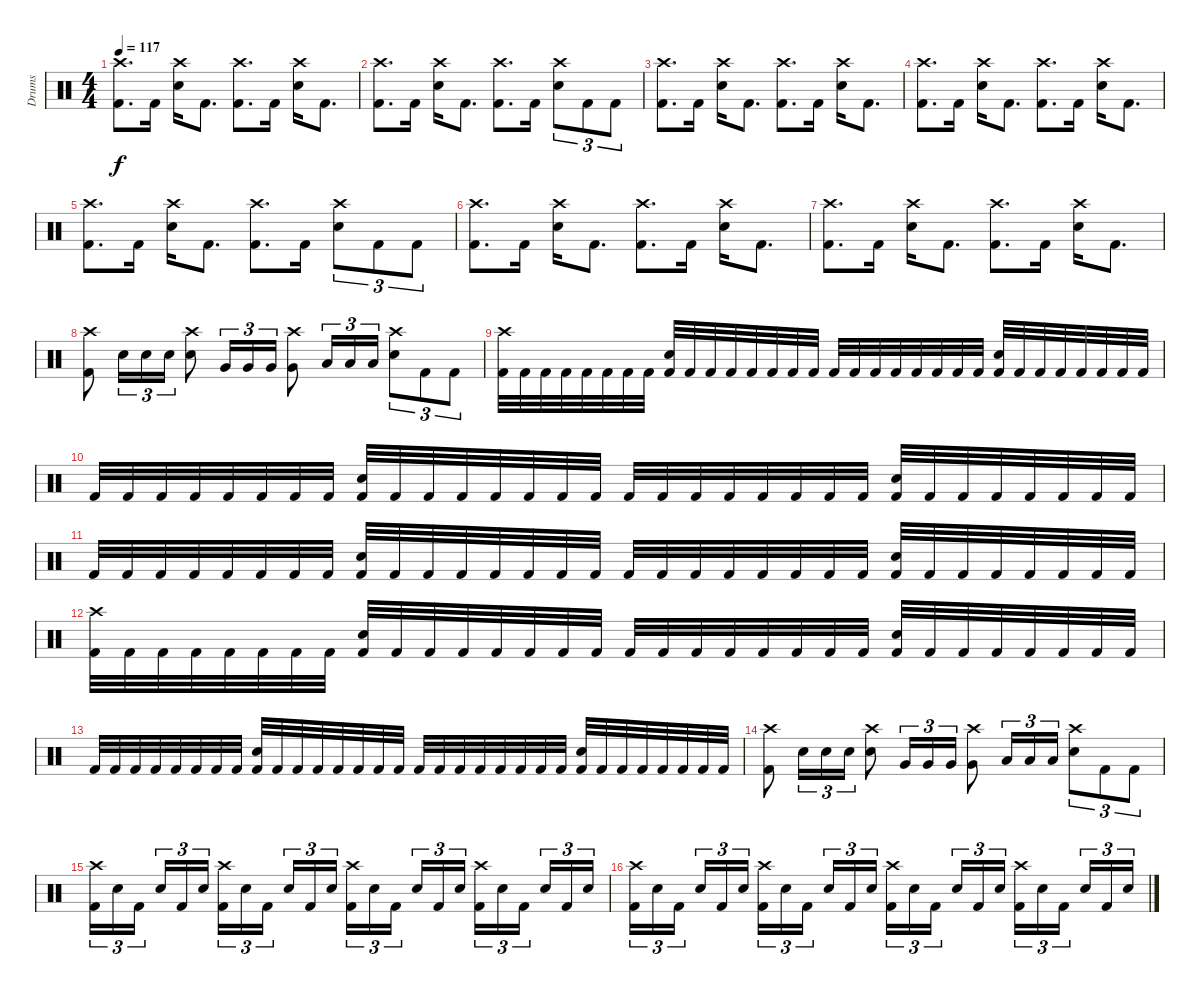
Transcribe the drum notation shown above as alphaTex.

\track ("Drums" "Drums") {instrument percussion}
\staff {score}
\articulation defaults
\ts (4 4)
\tempo 117
\clef neutral
\ks c
("Crash high (hit)" "Kick (hit) 2").8{d dy f} "Kick (hit) 2".16 ("Crash high (hit)" "Snare (hit) 2").16 "Kick (hit) 2".8{d} ("Crash high (hit)" "Kick (hit) 2").8{d} "Kick (hit) 2".16 ("Crash high (hit)" "Snare (hit) 2").16 "Kick (hit) 2".8{d} |
("Crash high (hit)" "Kick (hit) 2").8{d} "Kick (hit) 2".16 ("Crash high (hit)" "Snare (hit) 2").16 "Kick (hit) 2".8{d} ("Crash high (hit)" "Kick (hit) 2").8{d} "Kick (hit) 2".16 ("Crash high (hit)" "Snare (hit) 2").8{tu (3 2)} "Kick (hit) 2".8{tu (3 2)} "Kick (hit) 2".8{tu (3 2)} |
("Crash high (hit)" "Kick (hit) 2").8{d} "Kick (hit) 2".16 ("Crash high (hit)" "Snare (hit) 2").16 "Kick (hit) 2".8{d} ("Crash high (hit)" "Kick (hit) 2").8{d} "Kick (hit) 2".16 ("Crash high (hit)" "Snare (hit) 2").16 "Kick (hit) 2".8{d} |
("Crash high (hit)" "Kick (hit) 2").8{d} "Kick (hit) 2".16 ("Crash high (hit)" "Snare (hit) 2").16 "Kick (hit) 2".8{d} ("Crash high (hit)" "Kick (hit) 2").8{d} "Kick (hit) 2".16 ("Crash high (hit)" "Snare (hit) 2").16 "Kick (hit) 2".8{d} |
("Crash high (hit)" "Kick (hit) 2").8{d} "Kick (hit) 2".16 ("Crash high (hit)" "Snare (hit) 2").16 "Kick (hit) 2".8{d} ("Crash high (hit)" "Kick (hit) 2").8{d} "Kick (hit) 2".16 ("Crash high (hit)" "Snare (hit) 2").8{tu (3 2)} "Kick (hit) 2".8{tu (3 2)} "Kick (hit) 2".8{tu (3 2)} |
("Crash high (hit)" "Kick (hit) 2").8{d} "Kick (hit) 2".16 ("Crash high (hit)" "Snare (hit) 2").16 "Kick (hit) 2".8{d} ("Crash high (hit)" "Kick (hit) 2").8{d} "Kick (hit) 2".16 ("Crash high (hit)" "Snare (hit) 2").16 "Kick (hit) 2".8{d} |
("Crash high (hit)" "Kick (hit) 2").8{d} "Kick (hit) 2".16 ("Crash high (hit)" "Snare (hit) 2").16 "Kick (hit) 2".8{d} ("Crash high (hit)" "Kick (hit) 2").8{d} "Kick (hit) 2".16 ("Crash high (hit)" "Snare (hit) 2").16 "Kick (hit) 2".8{d} |
("Crash high (hit)" "Kick (hit) 2").8 "Snare (hit) 2".16{tu (3 2)} "Snare (hit) 2".16{tu (3 2)} "Snare (hit) 2".16{tu (3 2)} ("Crash high (hit)" "Snare (hit) 2").8 "Very Low Tom (hit)".16{tu (3 2)} "Very Low Tom (hit)".16{tu (3 2)} "Very Low Tom (hit)".16{tu (3 2)} ("Crash high (hit)" "Very Low Tom (hit)").8 "Low Floor Tom (hit)".16{tu (3 2)} "Low Floor Tom (hit)".16{tu (3 2)} "Low Floor Tom (hit)".16{tu (3 2)} ("Crash high (hit)" "Snare (hit) 2").8{tu (3 2)} "Kick (hit) 2".8{tu (3 2)} "Kick (hit) 2".8{tu (3 2)} |
("Crash high (hit)" "Kick (hit) 2").32 "Kick (hit) 2".32 "Kick (hit) 2".32 "Kick (hit) 2".32 "Kick (hit) 2".32 "Kick (hit) 2".32 "Kick (hit) 2".32 "Kick (hit) 2".32 ("Snare (hit) 2" "Kick (hit) 2").32 "Kick (hit) 2".32 "Kick (hit) 2".32 "Kick (hit) 2".32 "Kick (hit) 2".32 "Kick (hit) 2".32 "Kick (hit) 2".32 "Kick (hit) 2".32 "Kick (hit) 2".32 "Kick (hit) 2".32 "Kick (hit) 2".32 "Kick (hit) 2".32 "Kick (hit) 2".32 "Kick (hit) 2".32 "Kick (hit) 2".32 "Kick (hit) 2".32 ("Snare (hit) 2" "Kick (hit) 2").32 "Kick (hit) 2".32 "Kick (hit) 2".32 "Kick (hit) 2".32 "Kick (hit) 2".32 "Kick (hit) 2".32 "Kick (hit) 2".32 "Kick (hit) 2".32 |
"Kick (hit) 2".32 "Kick (hit) 2".32 "Kick (hit) 2".32 "Kick (hit) 2".32 "Kick (hit) 2".32 "Kick (hit) 2".32 "Kick (hit) 2".32 "Kick (hit) 2".32 ("Snare (hit) 2" "Kick (hit) 2").32 "Kick (hit) 2".32 "Kick (hit) 2".32 "Kick (hit) 2".32 "Kick (hit) 2".32 "Kick (hit) 2".32 "Kick (hit) 2".32 "Kick (hit) 2".32 "Kick (hit) 2".32 "Kick (hit) 2".32 "Kick (hit) 2".32 "Kick (hit) 2".32 "Kick (hit) 2".32 "Kick (hit) 2".32 "Kick (hit) 2".32 "Kick (hit) 2".32 ("Snare (hit) 2" "Kick (hit) 2").32 "Kick (hit) 2".32 "Kick (hit) 2".32 "Kick (hit) 2".32 "Kick (hit) 2".32 "Kick (hit) 2".32 "Kick (hit) 2".32 "Kick (hit) 2".32 |
"Kick (hit) 2".32 "Kick (hit) 2".32 "Kick (hit) 2".32 "Kick (hit) 2".32 "Kick (hit) 2".32 "Kick (hit) 2".32 "Kick (hit) 2".32 "Kick (hit) 2".32 ("Snare (hit) 2" "Kick (hit) 2").32 "Kick (hit) 2".32 "Kick (hit) 2".32 "Kick (hit) 2".32 "Kick (hit) 2".32 "Kick (hit) 2".32 "Kick (hit) 2".32 "Kick (hit) 2".32 "Kick (hit) 2".32 "Kick (hit) 2".32 "Kick (hit) 2".32 "Kick (hit) 2".32 "Kick (hit) 2".32 "Kick (hit) 2".32 "Kick (hit) 2".32 "Kick (hit) 2".32 ("Snare (hit) 2" "Kick (hit) 2").32 "Kick (hit) 2".32 "Kick (hit) 2".32 "Kick (hit) 2".32 "Kick (hit) 2".32 "Kick (hit) 2".32 "Kick (hit) 2".32 "Kick (hit) 2".32 |
("Crash high (hit)" "Kick (hit) 2").32 "Kick (hit) 2".32 "Kick (hit) 2".32 "Kick (hit) 2".32 "Kick (hit) 2".32 "Kick (hit) 2".32 "Kick (hit) 2".32 "Kick (hit) 2".32 ("Snare (hit) 2" "Kick (hit) 2").32 "Kick (hit) 2".32 "Kick (hit) 2".32 "Kick (hit) 2".32 "Kick (hit) 2".32 "Kick (hit) 2".32 "Kick (hit) 2".32 "Kick (hit) 2".32 "Kick (hit) 2".32 "Kick (hit) 2".32 "Kick (hit) 2".32 "Kick (hit) 2".32 "Kick (hit) 2".32 "Kick (hit) 2".32 "Kick (hit) 2".32 "Kick (hit) 2".32 ("Snare (hit) 2" "Kick (hit) 2").32 "Kick (hit) 2".32 "Kick (hit) 2".32 "Kick (hit) 2".32 "Kick (hit) 2".32 "Kick (hit) 2".32 "Kick (hit) 2".32 "Kick (hit) 2".32 |
"Kick (hit) 2".32 "Kick (hit) 2".32 "Kick (hit) 2".32 "Kick (hit) 2".32 "Kick (hit) 2".32 "Kick (hit) 2".32 "Kick (hit) 2".32 "Kick (hit) 2".32 ("Snare (hit) 2" "Kick (hit) 2").32 "Kick (hit) 2".32 "Kick (hit) 2".32 "Kick (hit) 2".32 "Kick (hit) 2".32 "Kick (hit) 2".32 "Kick (hit) 2".32 "Kick (hit) 2".32 "Kick (hit) 2".32 "Kick (hit) 2".32 "Kick (hit) 2".32 "Kick (hit) 2".32 "Kick (hit) 2".32 "Kick (hit) 2".32 "Kick (hit) 2".32 "Kick (hit) 2".32 ("Snare (hit) 2" "Kick (hit) 2").32 "Kick (hit) 2".32 "Kick (hit) 2".32 "Kick (hit) 2".32 "Kick (hit) 2".32 "Kick (hit) 2".32 "Kick (hit) 2".32 "Kick (hit) 2".32 |
("Crash high (hit)" "Kick (hit) 2").8 "Snare (hit) 2".16{tu (3 2)} "Snare (hit) 2".16{tu (3 2)} "Snare (hit) 2".16{tu (3 2)} ("Crash high (hit)" "Snare (hit) 2").8 "Very Low Tom (hit)".16{tu (3 2)} "Very Low Tom (hit)".16{tu (3 2)} "Very Low Tom (hit)".16{tu (3 2)} ("Crash high (hit)" "Very Low Tom (hit)").8 "Low Floor Tom (hit)".16{tu (3 2)} "Low Floor Tom (hit)".16{tu (3 2)} "Low Floor Tom (hit)".16{tu (3 2)} ("Crash high (hit)" "Snare (hit) 2").8{tu (3 2)} "Kick (hit) 2".8{tu (3 2)} "Kick (hit) 2".8{tu (3 2)} |
("Crash high (hit)" "Kick (hit) 2").16{tu (3 2)} "Snare (hit) 2".16{tu (3 2)} "Kick (hit) 2".16{tu (3 2) beam splitsecondary} "Snare (hit) 2".16{tu (3 2)} "Kick (hit) 2".16{tu (3 2)} "Snare (hit) 2".16{tu (3 2)} ("Crash high (hit)" "Kick (hit) 2").16{tu (3 2)} "Snare (hit) 2".16{tu (3 2)} "Kick (hit) 2".16{tu (3 2) beam splitsecondary} "Snare (hit) 2".16{tu (3 2)} "Kick (hit) 2".16{tu (3 2)} "Snare (hit) 2".16{tu (3 2)} ("Crash high (hit)" "Kick (hit) 2").16{tu (3 2)} "Snare (hit) 2".16{tu (3 2)} "Kick (hit) 2".16{tu (3 2) beam splitsecondary} "Snare (hit) 2".16{tu (3 2)} "Kick (hit) 2".16{tu (3 2)} "Snare (hit) 2".16{tu (3 2)} ("Crash high (hit)" "Kick (hit) 2").16{tu (3 2)} "Snare (hit) 2".16{tu (3 2)} "Kick (hit) 2".16{tu (3 2) beam splitsecondary} "Snare (hit) 2".16{tu (3 2)} "Kick (hit) 2".16{tu (3 2)} "Snare (hit) 2".16{tu (3 2)} |
("Crash high (hit)" "Kick (hit) 2").16{tu (3 2)} "Snare (hit) 2".16{tu (3 2)} "Kick (hit) 2".16{tu (3 2) beam splitsecondary} "Snare (hit) 2".16{tu (3 2)} "Kick (hit) 2".16{tu (3 2)} "Snare (hit) 2".16{tu (3 2)} ("Crash high (hit)" "Kick (hit) 2").16{tu (3 2)} "Snare (hit) 2".16{tu (3 2)} "Kick (hit) 2".16{tu (3 2) beam splitsecondary} "Snare (hit) 2".16{tu (3 2)} "Kick (hit) 2".16{tu (3 2)} "Snare (hit) 2".16{tu (3 2)} ("Crash high (hit)" "Kick (hit) 2").16{tu (3 2)} "Snare (hit) 2".16{tu (3 2)} "Kick (hit) 2".16{tu (3 2) beam splitsecondary} "Snare (hit) 2".16{tu (3 2)} "Kick (hit) 2".16{tu (3 2)} "Snare (hit) 2".16{tu (3 2)} ("Crash high (hit)" "Kick (hit) 2").16{tu (3 2)} "Snare (hit) 2".16{tu (3 2)} "Kick (hit) 2".16{tu (3 2) beam splitsecondary} "Snare (hit) 2".16{tu (3 2)} "Kick (hit) 2".16{tu (3 2)} "Snare (hit) 2".16{tu (3 2)}
